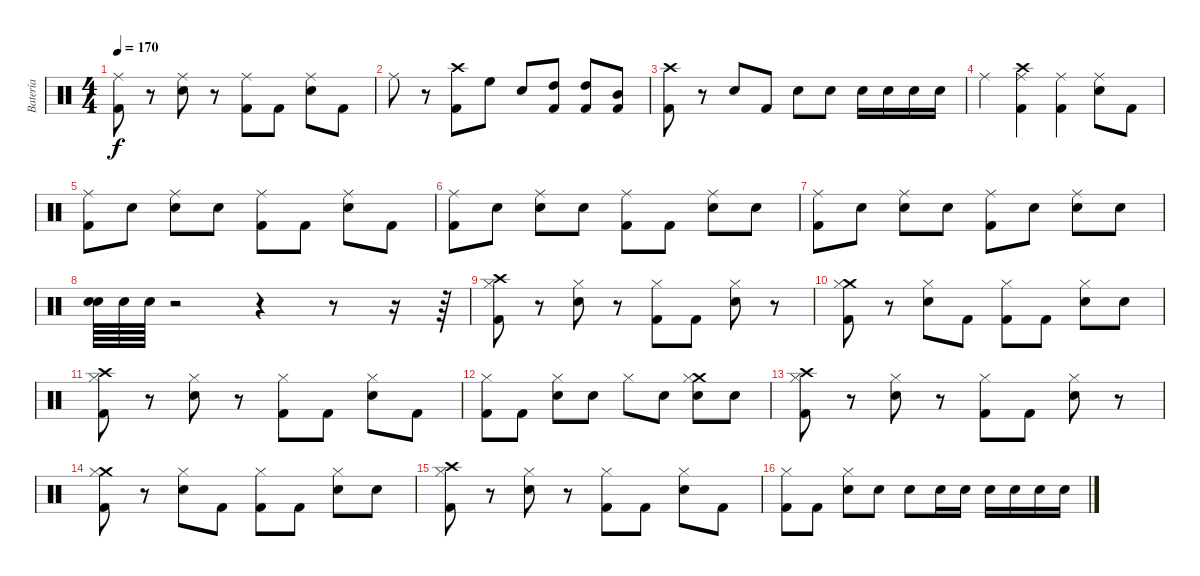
\track ("Batería" "Batería") {instrument percussion}
\staff {score}
\articulation defaults
\ts (4 4)
\tempo 170
\clef neutral
\ks c
("Ride (middle)" "Kick (hit) 2").8{dy f} r.8 ("Ride (middle)" "Snare (hit) 2").8 r.8 ("Ride (middle)" "Kick (hit) 2").8 "Kick (hit) 2".8 ("Ride (middle)" "Snare (hit) 2").8 "Kick (hit) 2".8 |
"Ride (middle)".8 r.8 ("Crash high (hit)" "Kick (hit) 2").8 "High Floor Tom (hit)".8 "Snare (hit) 2".8 ("High Tom (hit)" "Kick (hit) 2").8 ("High Tom (hit)" "Kick (hit) 2").8 ("Mid Tom (hit)" "Kick (hit) 2").8 |
("Crash high (hit)" "Kick (hit) 2").8 r.8 "Snare (hit) 2".8 "Kick (hit) 2".8 "Snare (hit) 2".8 "Snare (hit) 2".8 "Snare (hit) 2".16 "Snare (hit) 2".16 "Snare (hit) 2".16 "Snare (hit) 2".16 |
"Ride (middle)".4 ("Ride (middle)" "Crash high (hit)" "Kick (hit) 2").4 ("Ride (middle)" "Kick (hit) 2").4 ("Ride (middle)" "Snare (hit) 2").8 "Kick (hit) 2".8 |
("Ride (middle)" "Kick (hit) 2").8 "Snare (hit)".8 ("Ride (middle)" "Snare (hit) 2").8 "Snare (hit)".8 ("Ride (middle)" "Kick (hit) 2").8 "Kick (hit) 2".8 ("Ride (middle)" "Snare (hit) 2").8 "Kick (hit) 2".8 |
("Ride (middle)" "Kick (hit) 2").8 "Snare (hit)".8 ("Ride (middle)" "Snare (hit) 2").8 "Snare (hit)".8 ("Ride (middle)" "Kick (hit) 2").8 "Kick (hit) 2".8 ("Ride (middle)" "Snare (hit) 2").8 "Snare (hit)".8 |
("Ride (middle)" "Kick (hit) 2").8 "Snare (hit)".8 ("Ride (middle)" "Snare (hit) 2").8 "Snare (hit)".8 ("Ride (middle)" "Kick (hit) 2").8 "Snare (hit)".8 ("Ride (middle)" "Snare (hit) 2").8 "Snare (hit)".8 |
("Snare (hit) 2" "Electric Snare (hit)").64 "Snare (hit) 2".64 "Electric Snare (hit)".64 r.2 r.4 r.8 r.16 r.64 |
("Crash high (hit)" "Kick (hit) 2" "Hi-Hat (closed)").8 r.8 ("Snare (hit) 2" "Hi-Hat (closed)").8 r.8 ("Kick (hit) 2" "Hi-Hat (closed)").8 "Kick (hit) 2".8 ("Snare (hit) 2" "Hi-Hat (closed)").8 r.8 |
("Crash medium (hit)" "Kick (hit) 2" "Hi-Hat (closed)").8 r.8 ("Snare (hit) 2" "Hi-Hat (closed)").8 "Kick (hit) 2".8 ("Kick (hit) 2" "Hi-Hat (closed)").8 "Kick (hit) 2".8 ("Snare (hit) 2" "Hi-Hat (closed)").8 "Snare (hit)".8 |
("Crash high (hit)" "Hi-Hat (closed)" "Kick (hit) 2").8 r.8 ("Hi-Hat (closed)" "Snare (hit) 2").8 r.8 ("Hi-Hat (closed)" "Kick (hit) 2").8 "Kick (hit) 2".8 ("Hi-Hat (closed)" "Snare (hit) 2").8 "Kick (hit) 2".8 |
("Hi-Hat (closed)" "Kick (hit) 2").8 "Kick (hit) 2".8 ("Hi-Hat (closed)" "Snare (hit) 2").8 "Snare (hit)".8 "Hi-Hat (closed)".8 "Snare (hit)".8 ("Crash medium (hit)" "Hi-Hat (closed)" "Snare (hit) 2").8 "Snare (hit)".8 |
("Crash high (hit)" "Kick (hit) 2" "Hi-Hat (closed)").8 r.8 ("Snare (hit) 2" "Hi-Hat (closed)").8 r.8 ("Kick (hit) 2" "Hi-Hat (closed)").8 "Kick (hit) 2".8 ("Snare (hit) 2" "Hi-Hat (closed)").8 r.8 |
("Crash medium (hit)" "Kick (hit) 2" "Hi-Hat (closed)").8 r.8 ("Snare (hit) 2" "Hi-Hat (closed)").8 "Kick (hit) 2".8 ("Kick (hit) 2" "Hi-Hat (closed)").8 "Kick (hit) 2".8 ("Snare (hit) 2" "Hi-Hat (closed)").8 "Snare (hit)".8 |
("Crash high (hit)" "Hi-Hat (closed)" "Kick (hit) 2").8 r.8 ("Hi-Hat (closed)" "Snare (hit) 2").8 r.8 ("Hi-Hat (closed)" "Kick (hit) 2").8 "Kick (hit) 2".8 ("Hi-Hat (closed)" "Snare (hit) 2").8 "Kick (hit) 2".8 |
("Hi-Hat (closed)" "Kick (hit) 2").8 "Kick (hit) 2".8 ("Hi-Hat (closed)" "Snare (hit) 2").8 "Snare (hit)".8 "Snare (hit) 2".8 "Snare (hit) 2".16 "Snare (hit) 2".16 "Snare (hit) 2".16 "Snare (hit) 2".16 "Snare (hit) 2".16 "Snare (hit) 2".16
